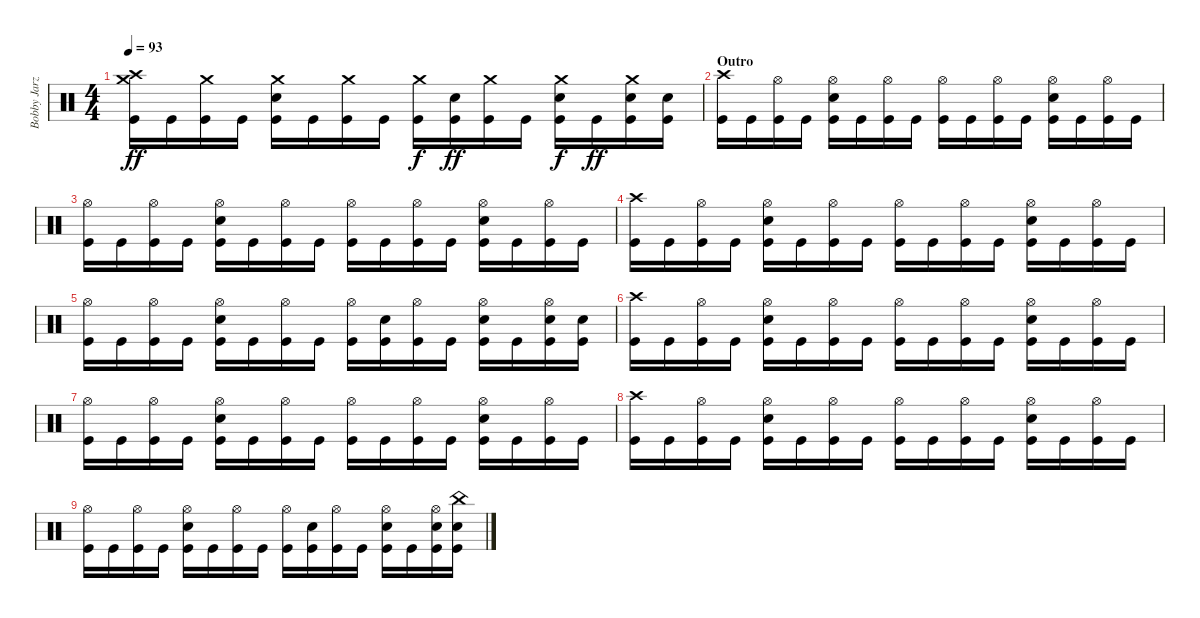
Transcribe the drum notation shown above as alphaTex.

\track ("Bobby Jarzombek" "Bobby Jarz") {instrument percussion}
\staff {score}
\articulation defaults
\ts (4 4)
\tempo 93
\clef neutral
\ks c
("Crash medium (hit)" "Crash high (hit)" "Kick (hit)").16{dy ff} "Kick (hit)".16 ("Crash medium (hit)" "Kick (hit)").16 "Kick (hit)".16 ("Crash medium (hit)" "Electric Snare (hit)" "Kick (hit)").16 "Kick (hit)".16 ("Crash medium (hit)" "Kick (hit)").16 "Kick (hit)".16 ("Crash medium (hit)" "Kick (hit)").16{dy f} ("Electric Snare (hit)" "Kick (hit)").16{dy ff} ("Crash medium (hit)" "Kick (hit)").16 "Kick (hit)".16 ("Crash medium (hit)" "Electric Snare (hit)" "Kick (hit)").16{dy f} "Kick (hit)".16{dy ff} ("Crash medium (hit)" "Electric Snare (hit)" "Kick (hit)").16 ("Electric Snare (hit)" "Kick (hit)").16 |
\section ("" "Outro")
("Crash high (hit)" "Kick (hit)").16 "Kick (hit)".16 ("Hi-Hat (open)" "Kick (hit)").16 "Kick (hit)".16 ("Hi-Hat (open)" "Electric Snare (hit)" "Kick (hit)").16 "Kick (hit)".16 ("Hi-Hat (open)" "Kick (hit)").16 "Kick (hit)".16 ("Hi-Hat (open)" "Kick (hit)").16 "Kick (hit)".16 ("Hi-Hat (open)" "Kick (hit)").16 "Kick (hit)".16 ("Hi-Hat (open)" "Electric Snare (hit)" "Kick (hit)").16 "Kick (hit)".16 ("Hi-Hat (open)" "Kick (hit)").16 "Kick (hit)".16 |
("Hi-Hat (open)" "Kick (hit)").16 "Kick (hit)".16 ("Hi-Hat (open)" "Kick (hit)").16 "Kick (hit)".16 ("Hi-Hat (open)" "Electric Snare (hit)" "Kick (hit)").16 "Kick (hit)".16 ("Hi-Hat (open)" "Kick (hit)").16 "Kick (hit)".16 ("Hi-Hat (open)" "Kick (hit)").16 "Kick (hit)".16 ("Hi-Hat (open)" "Kick (hit)").16 "Kick (hit)".16 ("Hi-Hat (open)" "Electric Snare (hit)" "Kick (hit)").16 "Kick (hit)".16 ("Hi-Hat (open)" "Kick (hit)").16 "Kick (hit)".16 |
("Crash high (hit)" "Kick (hit)").16 "Kick (hit)".16 ("Hi-Hat (open)" "Kick (hit)").16 "Kick (hit)".16 ("Hi-Hat (open)" "Electric Snare (hit)" "Kick (hit)").16 "Kick (hit)".16 ("Hi-Hat (open)" "Kick (hit)").16 "Kick (hit)".16 ("Hi-Hat (open)" "Kick (hit)").16 "Kick (hit)".16 ("Hi-Hat (open)" "Kick (hit)").16 "Kick (hit)".16 ("Hi-Hat (open)" "Electric Snare (hit)" "Kick (hit)").16 "Kick (hit)".16 ("Hi-Hat (open)" "Kick (hit)").16 "Kick (hit)".16 |
("Hi-Hat (open)" "Kick (hit)").16 "Kick (hit)".16 ("Hi-Hat (open)" "Kick (hit)").16 "Kick (hit)".16 ("Hi-Hat (open)" "Electric Snare (hit)" "Kick (hit)").16 "Kick (hit)".16 ("Hi-Hat (open)" "Kick (hit)").16 "Kick (hit)".16 ("Hi-Hat (open)" "Kick (hit)").16 ("Electric Snare (hit)" "Kick (hit)").16 ("Hi-Hat (open)" "Kick (hit)").16 "Kick (hit)".16 ("Hi-Hat (open)" "Electric Snare (hit)" "Kick (hit)").16 "Kick (hit)".16 ("Hi-Hat (open)" "Electric Snare (hit)" "Kick (hit)").16 ("Electric Snare (hit)" "Kick (hit)").16 |
("Crash high (hit)" "Kick (hit)").16 "Kick (hit)".16 ("Hi-Hat (open)" "Kick (hit)").16 "Kick (hit)".16 ("Hi-Hat (open)" "Electric Snare (hit)" "Kick (hit)").16 "Kick (hit)".16 ("Hi-Hat (open)" "Kick (hit)").16 "Kick (hit)".16 ("Hi-Hat (open)" "Kick (hit)").16 "Kick (hit)".16 ("Hi-Hat (open)" "Kick (hit)").16 "Kick (hit)".16 ("Hi-Hat (open)" "Electric Snare (hit)" "Kick (hit)").16 "Kick (hit)".16 ("Hi-Hat (open)" "Kick (hit)").16 "Kick (hit)".16 |
("Hi-Hat (open)" "Kick (hit)").16 "Kick (hit)".16 ("Hi-Hat (open)" "Kick (hit)").16 "Kick (hit)".16 ("Hi-Hat (open)" "Electric Snare (hit)" "Kick (hit)").16 "Kick (hit)".16 ("Hi-Hat (open)" "Kick (hit)").16 "Kick (hit)".16 ("Hi-Hat (open)" "Kick (hit)").16 "Kick (hit)".16 ("Hi-Hat (open)" "Kick (hit)").16 "Kick (hit)".16 ("Hi-Hat (open)" "Electric Snare (hit)" "Kick (hit)").16 "Kick (hit)".16 ("Hi-Hat (open)" "Kick (hit)").16 "Kick (hit)".16 |
("Crash high (hit)" "Kick (hit)").16 "Kick (hit)".16 ("Hi-Hat (open)" "Kick (hit)").16 "Kick (hit)".16 ("Hi-Hat (open)" "Electric Snare (hit)" "Kick (hit)").16 "Kick (hit)".16 ("Hi-Hat (open)" "Kick (hit)").16 "Kick (hit)".16 ("Hi-Hat (open)" "Kick (hit)").16 "Kick (hit)".16 ("Hi-Hat (open)" "Kick (hit)").16 "Kick (hit)".16 ("Hi-Hat (open)" "Electric Snare (hit)" "Kick (hit)").16 "Kick (hit)".16 ("Hi-Hat (open)" "Kick (hit)").16 "Kick (hit)".16 |
("Hi-Hat (open)" "Kick (hit)").16 "Kick (hit)".16 ("Hi-Hat (open)" "Kick (hit)").16 "Kick (hit)".16 ("Hi-Hat (open)" "Electric Snare (hit)" "Kick (hit)").16 "Kick (hit)".16 ("Hi-Hat (open)" "Kick (hit)").16 "Kick (hit)".16 ("Hi-Hat (open)" "Kick (hit)").16 ("Electric Snare (hit)" "Kick (hit)").16 ("Hi-Hat (open)" "Kick (hit)").16 "Kick (hit)".16 ("Hi-Hat (open)" "Electric Snare (hit)" "Kick (hit)").16 "Kick (hit)".16 ("Hi-Hat (open)" "Electric Snare (hit)" "Kick (hit)").16 ("China (hit)" "Electric Snare (hit)" "Kick (hit)").16
